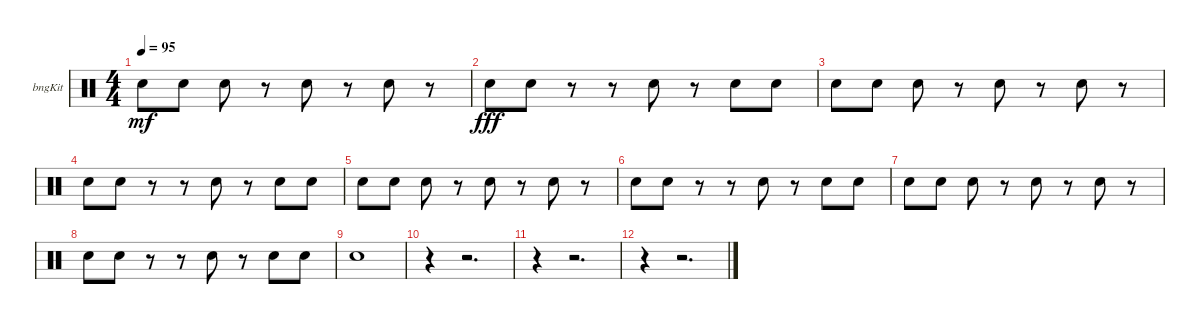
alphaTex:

\bracketExtendMode groupsimilarinstruments
\firstSystemTrackNameOrientation horizontal
\otherSystemsTrackNameOrientation horizontal
\track ("Bongos" "bngKit") {instrument percussion}
\staff {score}
\articulation defaults
\ts (4 4)
\tempo 95
\clef neutral
\ks c "Snare (hit) 2".8{dy mf} "Snare (hit) 2".8 "Snare (hit) 2".8
r.8 "Snare (hit) 2".8 r.8 "Snare (hit) 2".8 r.8 |
"Snare (hit) 2".8{dy fff} "Snare (hit) 2".8 r.8 r.8 "Snare (hit) 2".8 r.8 "Snare (hit) 2".8 "Snare (hit) 2".8 |
"Snare (hit) 2".8 "Snare (hit) 2".8 "Snare (hit) 2".8 r.8 "Snare (hit) 2".8 r.8 "Snare (hit) 2".8 r.8 |
"Snare (hit) 2".8 "Snare (hit) 2".8 r.8 r.8 "Snare (hit) 2".8 r.8 "Snare (hit) 2".8 "Snare (hit) 2".8 |
"Snare (hit) 2".8 "Snare (hit) 2".8 "Snare (hit) 2".8 r.8 "Snare (hit) 2".8 r.8 "Snare (hit) 2".8 r.8 |
"Snare (hit) 2".8 "Snare (hit) 2".8 r.8 r.8 "Snare (hit) 2".8 r.8 "Snare (hit) 2".8 "Snare (hit) 2".8 |
"Snare (hit) 2".8 "Snare (hit) 2".8 "Snare (hit) 2".8 r.8 "Snare (hit) 2".8 r.8 "Snare (hit) 2".8 r.8 |
"Snare (hit) 2".8 "Snare (hit) 2".8 r.8 r.8 "Snare (hit) 2".8 r.8 "Snare (hit) 2".8 "Snare (hit) 2".8 |
"Snare (hit) 2".1 |
r.4 r.2{d} |
r.4 r.2{d} |
r.4 r.2{d}
